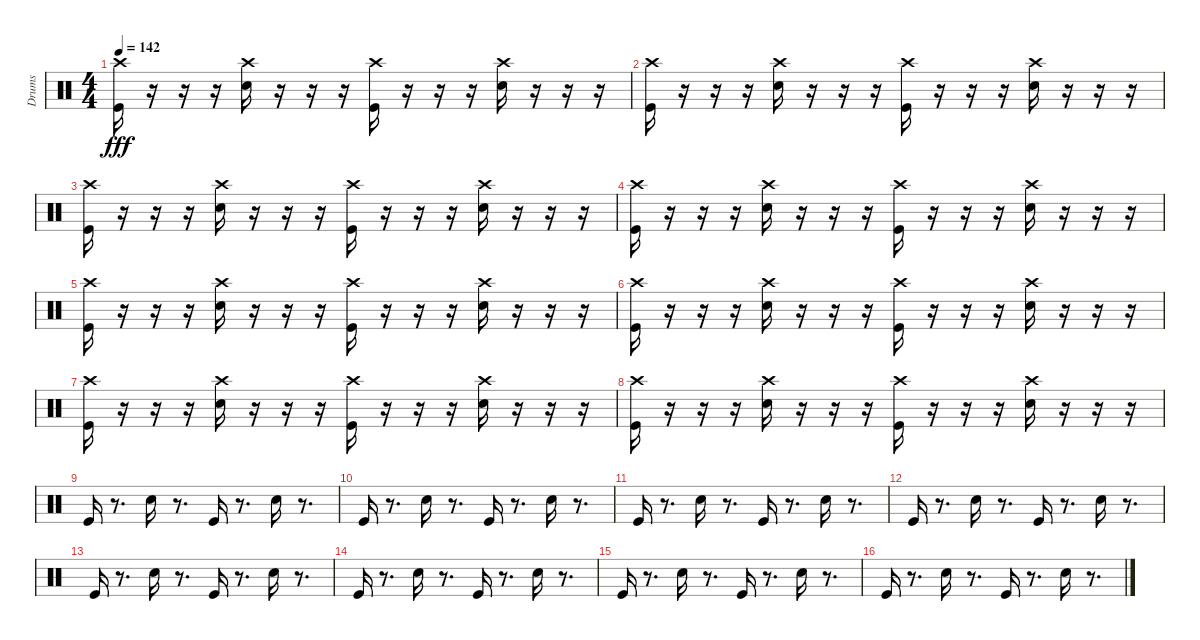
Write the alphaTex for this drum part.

\track ("Drums" "Drums") {instrument percussion}
\staff {score}
\articulation defaults
\ts (4 4)
\tempo 142
\clef neutral
\ks c
("Kick (hit)" "Crash high (hit)").16{dy fff} r.16 r.16 r.16 ("Snare (hit) 2" "Crash high (hit)").16 r.16 r.16 r.16 ("Kick (hit)" "Crash high (hit)").16 r.16 r.16 r.16 ("Snare (hit) 2" "Crash high (hit)").16 r.16 r.16 r.16 |
("Kick (hit)" "Crash high (hit)").16 r.16 r.16 r.16 ("Snare (hit) 2" "Crash high (hit)").16 r.16 r.16 r.16 ("Kick (hit)" "Crash high (hit)").16 r.16 r.16 r.16 ("Snare (hit) 2" "Crash high (hit)").16 r.16 r.16 r.16 |
("Kick (hit)" "Crash high (hit)").16 r.16 r.16 r.16 ("Snare (hit) 2" "Crash high (hit)").16 r.16 r.16 r.16 ("Kick (hit)" "Crash high (hit)").16 r.16 r.16 r.16 ("Snare (hit) 2" "Crash high (hit)").16 r.16 r.16 r.16 |
("Kick (hit)" "Crash high (hit)").16 r.16 r.16 r.16 ("Snare (hit) 2" "Crash high (hit)").16 r.16 r.16 r.16 ("Kick (hit)" "Crash high (hit)").16 r.16 r.16 r.16 ("Snare (hit) 2" "Crash high (hit)").16 r.16 r.16 r.16 |
("Kick (hit)" "Crash high (hit)").16 r.16 r.16 r.16 ("Snare (hit) 2" "Crash high (hit)").16 r.16 r.16 r.16 ("Kick (hit)" "Crash high (hit)").16 r.16 r.16 r.16 ("Snare (hit) 2" "Crash high (hit)").16 r.16 r.16 r.16 |
("Kick (hit)" "Crash high (hit)").16 r.16 r.16 r.16 ("Snare (hit) 2" "Crash high (hit)").16 r.16 r.16 r.16 ("Kick (hit)" "Crash high (hit)").16 r.16 r.16 r.16 ("Snare (hit) 2" "Crash high (hit)").16 r.16 r.16 r.16 |
("Kick (hit)" "Crash high (hit)").16 r.16 r.16 r.16 ("Snare (hit) 2" "Crash high (hit)").16 r.16 r.16 r.16 ("Kick (hit)" "Crash high (hit)").16 r.16 r.16 r.16 ("Snare (hit) 2" "Crash high (hit)").16 r.16 r.16 r.16 |
("Kick (hit)" "Crash high (hit)").16 r.16 r.16 r.16 ("Snare (hit) 2" "Crash high (hit)").16 r.16 r.16 r.16 ("Kick (hit)" "Crash high (hit)").16 r.16 r.16 r.16 ("Snare (hit) 2" "Crash high (hit)").16 r.16 r.16 r.16 |
"Kick (hit)".16 r.8{d} "Snare (hit) 2".16 r.8{d} "Kick (hit)".16 r.8{d} "Snare (hit) 2".16 r.8{d} |
"Kick (hit)".16 r.8{d} "Snare (hit) 2".16 r.8{d} "Kick (hit)".16 r.8{d} "Snare (hit) 2".16 r.8{d} |
"Kick (hit)".16 r.8{d} "Snare (hit) 2".16 r.8{d} "Kick (hit)".16 r.8{d} "Snare (hit) 2".16 r.8{d} |
"Kick (hit)".16 r.8{d} "Snare (hit) 2".16 r.8{d} "Kick (hit)".16 r.8{d} "Snare (hit) 2".16 r.8{d} |
"Kick (hit)".16 r.8{d} "Snare (hit) 2".16 r.8{d} "Kick (hit)".16 r.8{d} "Snare (hit) 2".16 r.8{d} |
"Kick (hit)".16 r.8{d} "Snare (hit) 2".16 r.8{d} "Kick (hit)".16 r.8{d} "Snare (hit) 2".16 r.8{d} |
"Kick (hit)".16 r.8{d} "Snare (hit) 2".16 r.8{d} "Kick (hit)".16 r.8{d} "Snare (hit) 2".16 r.8{d} |
"Kick (hit)".16 r.8{d} "Snare (hit) 2".16 r.8{d} "Kick (hit)".16 r.8{d} "Snare (hit) 2".16 r.8{d}
